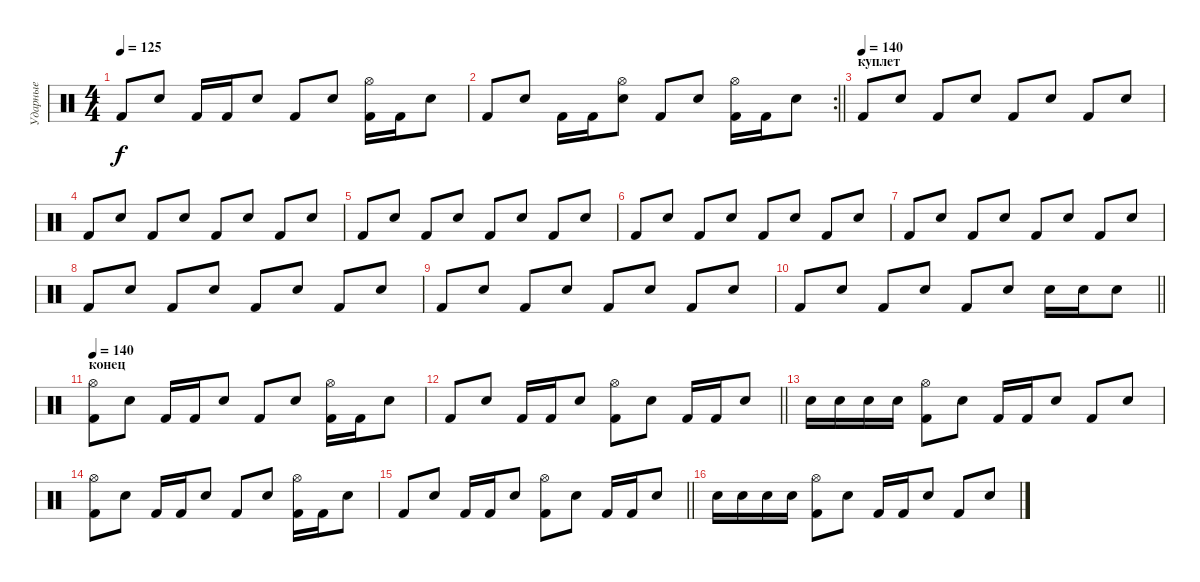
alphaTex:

\track ("Ударные" "Ударные") {instrument percussion}
\staff {score}
\articulation defaults
\ts (4 4)
\tempo 125
\clef neutral
\ks c "Kick (hit) 2".8{dy f} "Electric Snare (hit)".8 "Kick (hit) 2".16 "Kick (hit) 2".16 "Electric Snare (hit)".8 "Kick (hit) 2".8 "Electric Snare (hit)".8
("Kick (hit) 2" "Hi-Hat (open)").16 "Kick (hit) 2".16 "Electric Snare (hit)".8 |
\rc 2
\barLineRight lightlight "Kick (hit) 2".8 "Electric Snare (hit)".8 "Kick (hit) 2".16 "Kick (hit) 2".16
("Electric Snare (hit)" "Hi-Hat (open)").8 "Kick (hit) 2".8 "Electric Snare (hit)".8 ("Kick (hit) 2" "Hi-Hat (open)").16 "Kick (hit) 2".16 "Electric Snare (hit)".8 |
\section ("" "куплет")
\tempo (140)
"Kick (hit) 2".8 "Snare (hit) 2".8 "Kick (hit) 2".8 "Snare (hit) 2".8 "Kick (hit) 2".8 "Snare (hit) 2".8 "Kick (hit) 2".8 "Snare (hit) 2".8 |
"Kick (hit) 2".8 "Snare (hit) 2".8 "Kick (hit) 2".8 "Snare (hit) 2".8 "Kick (hit) 2".8 "Snare (hit) 2".8 "Kick (hit) 2".8 "Snare (hit) 2".8 |
"Kick (hit) 2".8 "Snare (hit) 2".8 "Kick (hit) 2".8 "Snare (hit) 2".8 "Kick (hit) 2".8 "Snare (hit) 2".8 "Kick (hit) 2".8 "Snare (hit) 2".8 |
"Kick (hit) 2".8 "Snare (hit) 2".8 "Kick (hit) 2".8 "Snare (hit) 2".8 "Kick (hit) 2".8 "Snare (hit) 2".8 "Kick (hit) 2".8 "Snare (hit) 2".8 |
"Kick (hit) 2".8 "Snare (hit) 2".8 "Kick (hit) 2".8 "Snare (hit) 2".8 "Kick (hit) 2".8 "Snare (hit) 2".8 "Kick (hit) 2".8 "Snare (hit) 2".8 |
"Kick (hit) 2".8 "Snare (hit) 2".8 "Kick (hit) 2".8 "Snare (hit) 2".8 "Kick (hit) 2".8 "Snare (hit) 2".8 "Kick (hit) 2".8 "Snare (hit) 2".8 |
"Kick (hit) 2".8 "Snare (hit) 2".8 "Kick (hit) 2".8 "Snare (hit) 2".8 "Kick (hit) 2".8 "Snare (hit) 2".8 "Kick (hit) 2".8 "Snare (hit) 2".8 |
\barLineRight lightlight "Kick (hit) 2".8 "Snare (hit) 2".8 "Kick (hit) 2".8 "Snare (hit) 2".8 "Kick (hit) 2".8 "Electric Snare (hit)".8 "Electric Snare (hit)".16 "Electric Snare (hit)".16 "Electric Snare (hit)".8
|
\section ("" "конец")
\tempo 140
("Kick (hit) 2" "Hi-Hat (open)").8 "Electric Snare (hit)".8 "Kick (hit) 2".16 "Kick (hit) 2".16 "Electric Snare (hit)".8 "Kick (hit) 2".8 "Electric Snare (hit)".8 ("Kick (hit) 2" "Hi-Hat (open)").16 "Kick (hit) 2".16 "Electric Snare (hit)".8 |
\barLineRight lightlight "Kick (hit) 2".8 "Electric Snare (hit)".8 "Kick (hit) 2".16 "Kick (hit) 2".16 "Electric Snare (hit)".8
("Kick (hit) 2" "Hi-Hat (open)").8 "Electric Snare (hit)".8 "Kick (hit) 2".16 "Kick (hit) 2".16 "Electric Snare (hit)".8 |
"Snare (hit) 2".16 "Snare (hit) 2".16 "Snare (hit) 2".16 "Snare (hit) 2".16 ("Kick (hit) 2" "Hi-Hat (open)").8 "Snare (hit) 2".8 "Kick (hit) 2".16 "Kick (hit) 2".16 "Snare (hit) 2".8 "Kick (hit) 2".8 "Snare (hit) 2".8 |
("Kick (hit) 2" "Hi-Hat (open)").8 "Electric Snare (hit)".8 "Kick (hit) 2".16 "Kick (hit) 2".16 "Electric Snare (hit)".8 "Kick (hit) 2".8 "Electric Snare (hit)".8 ("Kick (hit) 2" "Hi-Hat (open)").16 "Kick (hit) 2".16 "Electric Snare (hit)".8 |
\barLineRight lightlight "Kick (hit) 2".8 "Electric Snare (hit)".8 "Kick (hit) 2".16 "Kick (hit) 2".16 "Electric Snare (hit)".8
("Kick (hit) 2" "Hi-Hat (open)").8 "Electric Snare (hit)".8 "Kick (hit) 2".16 "Kick (hit) 2".16 "Electric Snare (hit)".8 |
"Snare (hit) 2".16 "Snare (hit) 2".16 "Snare (hit) 2".16 "Snare (hit) 2".16 ("Kick (hit) 2" "Hi-Hat (open)").8 "Snare (hit) 2".8 "Kick (hit) 2".16 "Kick (hit) 2".16 "Snare (hit) 2".8 "Kick (hit) 2".8 "Snare (hit) 2".8
